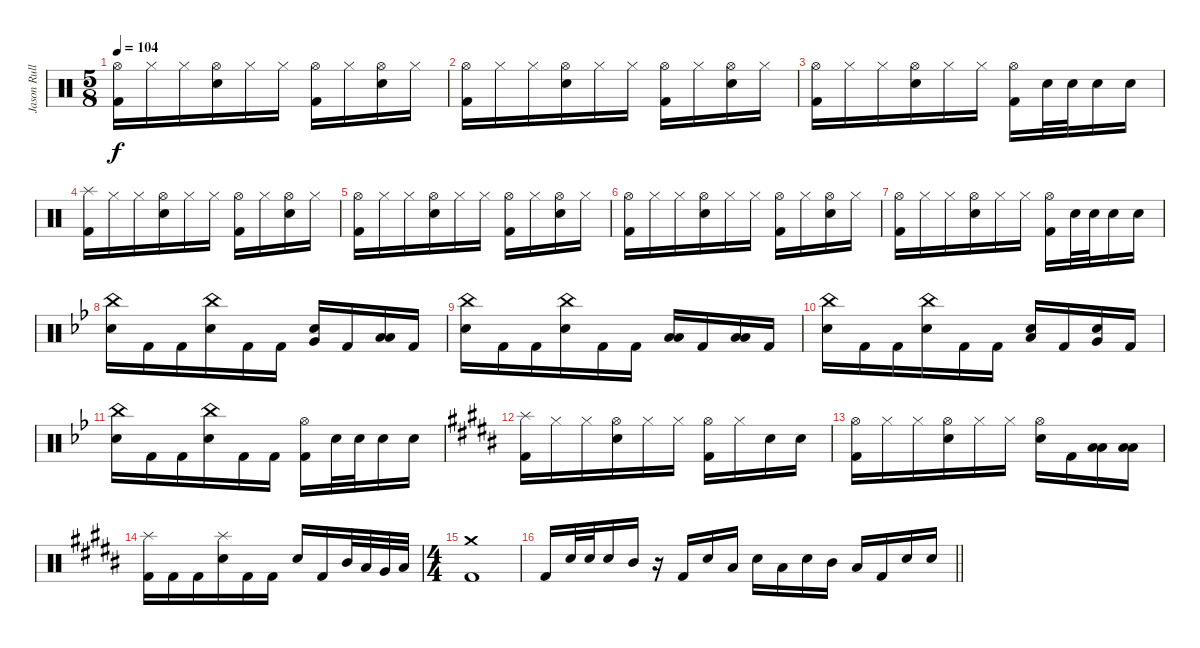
\track ("Jason Rullo (drums)" "Jason Rull") {instrument percussion}
\staff {score}
\articulation defaults
\ts (5 8)
\tempo 104
\clef neutral
\ks aminor
("Hi-Hat (open)" "Kick (hit) 2").16{dy f} "Hi-Hat (closed)".16 "Hi-Hat (closed)".16 ("Hi-Hat (open)" "Electric Snare (hit)").16 "Hi-Hat (closed)".16 "Hi-Hat (closed)".16 ("Hi-Hat (open)" "Kick (hit) 2").16 "Hi-Hat (closed)".16 ("Hi-Hat (open)" "Electric Snare (hit)").16 "Hi-Hat (closed)".16 |
("Hi-Hat (open)" "Kick (hit) 2").16 "Hi-Hat (closed)".16 "Hi-Hat (closed)".16 ("Hi-Hat (open)" "Electric Snare (hit)").16 "Hi-Hat (closed)".16 "Hi-Hat (closed)".16 ("Hi-Hat (open)" "Kick (hit) 2").16 "Hi-Hat (closed)".16 ("Hi-Hat (open)" "Electric Snare (hit)").16 "Hi-Hat (closed)".16 |
("Hi-Hat (open)" "Kick (hit) 2").16 "Hi-Hat (closed)".16 "Hi-Hat (closed)".16 ("Hi-Hat (open)" "Electric Snare (hit)").16 "Hi-Hat (closed)".16 "Hi-Hat (closed)".16 ("Hi-Hat (open)" "Kick (hit) 2").16 "Electric Snare (hit)".32 "Electric Snare (hit)".32 "Electric Snare (hit)".16 "Electric Snare (hit)".16 |
("Splash (hit)" "Kick (hit) 2").16 "Hi-Hat (closed)".16 "Hi-Hat (closed)".16 ("Hi-Hat (open)" "Electric Snare (hit)").16 "Hi-Hat (closed)".16 "Hi-Hat (closed)".16 ("Hi-Hat (open)" "Kick (hit) 2").16 "Hi-Hat (closed)".16 ("Hi-Hat (open)" "Electric Snare (hit)").16 "Hi-Hat (closed)".16 |
("Hi-Hat (open)" "Kick (hit) 2").16 "Hi-Hat (closed)".16 "Hi-Hat (closed)".16 ("Hi-Hat (open)" "Electric Snare (hit)").16 "Hi-Hat (closed)".16 "Hi-Hat (closed)".16 ("Hi-Hat (open)" "Kick (hit) 2").16 "Hi-Hat (closed)".16 ("Hi-Hat (open)" "Electric Snare (hit)").16 "Hi-Hat (closed)".16 |
("Hi-Hat (open)" "Kick (hit) 2").16 "Hi-Hat (closed)".16 "Hi-Hat (closed)".16 ("Hi-Hat (open)" "Electric Snare (hit)").16 "Hi-Hat (closed)".16 "Hi-Hat (closed)".16 ("Hi-Hat (open)" "Kick (hit) 2").16 "Hi-Hat (closed)".16 ("Hi-Hat (open)" "Electric Snare (hit)").16 "Hi-Hat (closed)".16 |
("Hi-Hat (open)" "Kick (hit) 2").16 "Hi-Hat (closed)".16 "Hi-Hat (closed)".16 ("Hi-Hat (open)" "Electric Snare (hit)").16 "Hi-Hat (closed)".16 "Hi-Hat (closed)".16 ("Hi-Hat (open)" "Kick (hit) 2").16 "Electric Snare (hit)".32 "Electric Snare (hit)".32 "Electric Snare (hit)".16 "Electric Snare (hit)".16 |
\ks gminor
("China (hit)" "Electric Snare (hit)").16 "Kick (hit) 2".16 "Kick (hit) 2".16 ("China (hit)" "Electric Snare (hit)").16 "Kick (hit) 2".16 "Kick (hit) 2".16 ("Very Low Tom (hit)" "Electric Snare (hit)").16 "Kick (hit) 2".16 ("Low Floor Tom (hit)" "Low Tom (hit)").16 "Kick (hit) 2".16 |
("China (hit)" "Electric Snare (hit)").16 "Kick (hit) 2".16 "Kick (hit) 2".16 ("China (hit)" "Electric Snare (hit)").16 "Kick (hit) 2".16 "Kick (hit) 2".16 ("Low Floor Tom (hit)" "Low Tom (hit)").16 "Kick (hit) 2".16 ("Low Floor Tom (hit)" "Low Tom (hit)").16 "Kick (hit) 2".16 |
("China (hit)" "Electric Snare (hit)").16 "Kick (hit) 2".16 "Kick (hit) 2".16 ("China (hit)" "Electric Snare (hit)").16 "Kick (hit) 2".16 "Kick (hit) 2".16 ("Low Tom (hit)" "Electric Snare (hit)").16 "Kick (hit) 2".16 ("Very Low Tom (hit)" "Electric Snare (hit)").16 "Kick (hit) 2".16 |
("China (hit)" "Electric Snare (hit)").16 "Kick (hit) 2".16 "Kick (hit) 2".16 ("China (hit)" "Electric Snare (hit)").16 "Kick (hit) 2".16 "Kick (hit) 2".16 ("Hi-Hat (open)" "Kick (hit) 2").16 "Electric Snare (hit)".32 "Electric Snare (hit)".32 "Electric Snare (hit)".16 "Electric Snare (hit)".16 |
\ks g#minor
("Splash (hit)" "Kick (hit) 2").16 "Hi-Hat (closed)".16 "Hi-Hat (closed)".16 ("Hi-Hat (open)" "Electric Snare (hit)").16 "Hi-Hat (closed)".16 "Hi-Hat (closed)".16 ("Hi-Hat (open)" "Kick (hit) 2").16 "Hi-Hat (closed)".16 "Electric Snare (hit)".16 "Electric Snare (hit)".16 |
("Hi-Hat (open)" "Kick (hit) 2").16 "Hi-Hat (closed)".16 "Hi-Hat (closed)".16 ("Hi-Hat (open)" "Electric Snare (hit)").16 "Hi-Hat (closed)".16 "Hi-Hat (closed)".16 ("Hi-Hat (open)" "Electric Snare (hit)").16 "Kick (hit) 2".16 ("Low Tom (hit)" "Low Floor Tom (hit)").16 ("Low Tom (hit)" "Low Floor Tom (hit)").16 |
("Kick (hit) 2" "Splash (hit)").16 "Kick (hit) 2".16 "Kick (hit) 2".16 ("Splash (hit)" "Electric Snare (hit)").16 "Kick (hit) 2".16 "Kick (hit) 2".16 "Electric Snare (hit)".16 "Kick (hit) 2".16 "Mid Tom (hit)".32 "Low Tom (hit)".32 "Very Low Tom (hit)".32 "Low Floor Tom (hit)".32 |
\ts (4 4)
\ks b
("Crash medium (hit)" "Kick (hit) 2").1 |
\barLineRight lightlight "Kick (hit) 2".16 "Electric Snare (hit)".32 "Electric Snare (hit)".32 "Electric Snare (hit)".16 "Mid Tom (hit)".16
r.16 "Kick (hit) 2".16 "Electric Snare (hit)".16 "Low Tom (hit)".16 "Electric Snare (hit)".16 "Low Floor Tom (hit)".16 "Electric Snare (hit)".16 "Mid Tom (hit)".16 "Low Tom (hit)".16 "Kick (hit) 2".16 "Electric Snare (hit)".16 "Electric Snare (hit)".16
